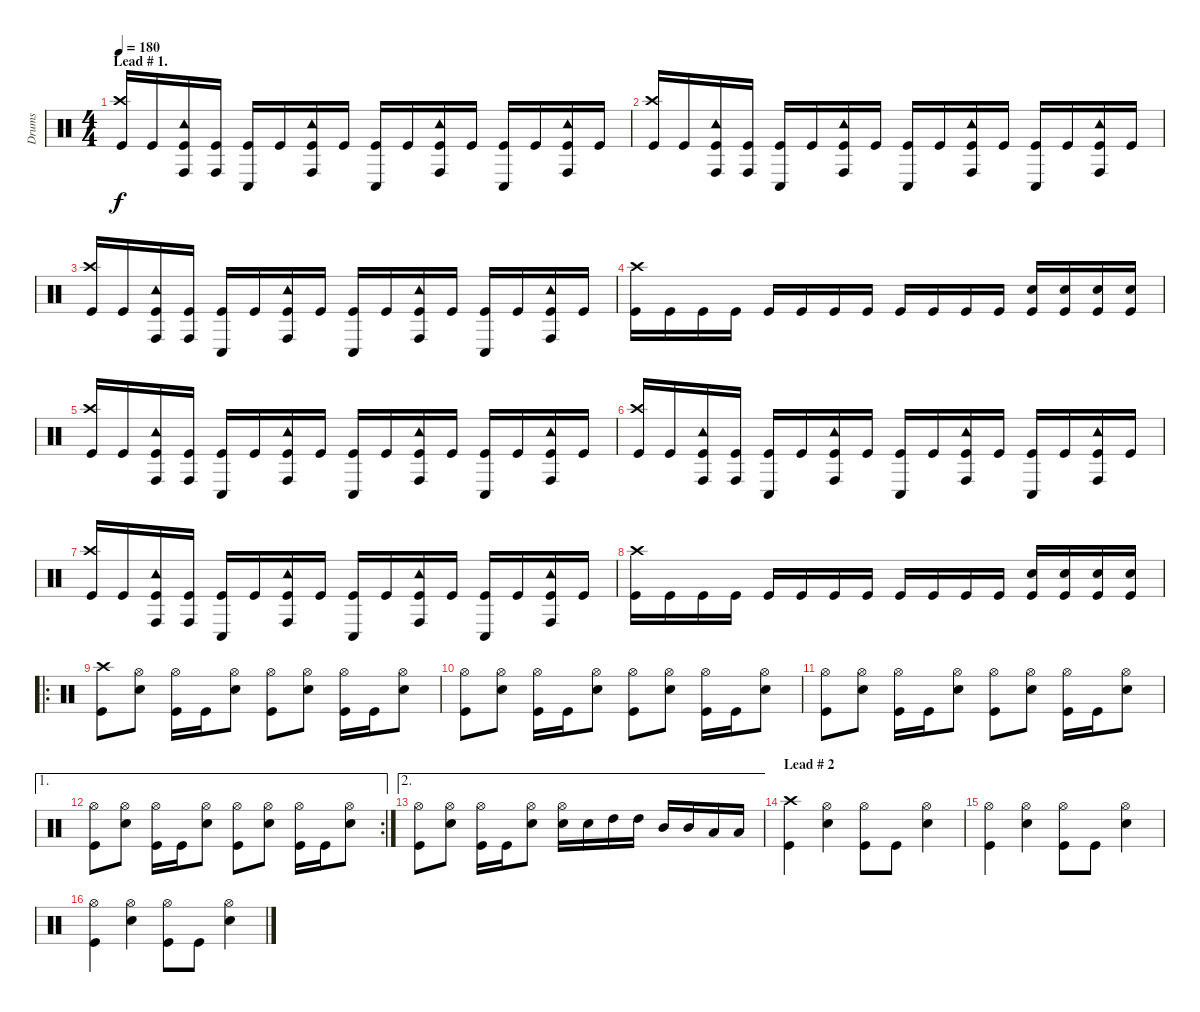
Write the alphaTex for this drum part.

\track ("Drums" "Drums") {instrument percussion}
\staff {score}
\articulation defaults
\ts (4 4)
\section ("" "Lead # 1.")
\tempo 180
\clef neutral
\ks c
("Crash high (hit)" "Kick (hit)").16{dy f} "Kick (hit)".16 ("Conga high (hit)" "Tambourine (hit)" "Kick (hit)").16 ("Conga high (hit)" "Kick (hit)").16 ("Conga low (hit)" "Kick (hit)").16 "Kick (hit)".16 ("Conga high (hit)" "Tambourine (hit)" "Kick (hit)").16 "Kick (hit)".16 ("Conga low (hit)" "Kick (hit)").16 "Kick (hit)".16 ("Conga high (hit)" "Tambourine (hit)" "Kick (hit)").16 "Kick (hit)".16 ("Conga low (hit)" "Kick (hit)").16 "Kick (hit)".16 ("Conga high (hit)" "Tambourine (hit)" "Kick (hit)").16 "Kick (hit)".16 |
("Crash high (hit)" "Kick (hit)").16 "Kick (hit)".16 ("Conga high (hit)" "Tambourine (hit)" "Kick (hit)").16 ("Conga high (hit)" "Kick (hit)").16 ("Conga low (hit)" "Kick (hit)").16 "Kick (hit)".16 ("Conga high (hit)" "Tambourine (hit)" "Kick (hit)").16 "Kick (hit)".16 ("Conga low (hit)" "Kick (hit)").16 "Kick (hit)".16 ("Conga high (hit)" "Tambourine (hit)" "Kick (hit)").16 "Kick (hit)".16 ("Conga low (hit)" "Kick (hit)").16 "Kick (hit)".16 ("Conga high (hit)" "Tambourine (hit)" "Kick (hit)").16 "Kick (hit)".16 |
("Crash high (hit)" "Kick (hit)").16 "Kick (hit)".16 ("Conga high (hit)" "Tambourine (hit)" "Kick (hit)").16 ("Conga high (hit)" "Kick (hit)").16 ("Conga low (hit)" "Kick (hit)").16 "Kick (hit)".16 ("Conga high (hit)" "Tambourine (hit)" "Kick (hit)").16 "Kick (hit)".16 ("Conga low (hit)" "Kick (hit)").16 "Kick (hit)".16 ("Conga high (hit)" "Tambourine (hit)" "Kick (hit)").16 "Kick (hit)".16 ("Conga low (hit)" "Kick (hit)").16 "Kick (hit)".16 ("Conga high (hit)" "Tambourine (hit)" "Kick (hit)").16 "Kick (hit)".16 |
("Crash high (hit)" "Kick (hit)").16 "Kick (hit)".16 "Kick (hit)".16 "Kick (hit)".16 "Kick (hit)".16 "Kick (hit)".16 "Kick (hit)".16 "Kick (hit)".16 "Kick (hit)".16 "Kick (hit)".16 "Kick (hit)".16 "Kick (hit)".16 ("Snare (hit) 2" "Kick (hit)").16 ("Snare (hit) 2" "Kick (hit)").16 ("Snare (hit) 2" "Kick (hit)").16 ("Snare (hit) 2" "Kick (hit)").16 |
("Crash high (hit)" "Kick (hit)").16 "Kick (hit)".16 ("Conga high (hit)" "Tambourine (hit)" "Kick (hit)").16 ("Conga high (hit)" "Kick (hit)").16 ("Conga low (hit)" "Kick (hit)").16 "Kick (hit)".16 ("Conga high (hit)" "Tambourine (hit)" "Kick (hit)").16 "Kick (hit)".16 ("Conga low (hit)" "Kick (hit)").16 "Kick (hit)".16 ("Conga high (hit)" "Tambourine (hit)" "Kick (hit)").16 "Kick (hit)".16 ("Conga low (hit)" "Kick (hit)").16 "Kick (hit)".16 ("Conga high (hit)" "Tambourine (hit)" "Kick (hit)").16 "Kick (hit)".16 |
("Crash high (hit)" "Kick (hit)").16 "Kick (hit)".16 ("Conga high (hit)" "Tambourine (hit)" "Kick (hit)").16 ("Conga high (hit)" "Kick (hit)").16 ("Conga low (hit)" "Kick (hit)").16 "Kick (hit)".16 ("Conga high (hit)" "Tambourine (hit)" "Kick (hit)").16 "Kick (hit)".16 ("Conga low (hit)" "Kick (hit)").16 "Kick (hit)".16 ("Conga high (hit)" "Tambourine (hit)" "Kick (hit)").16 "Kick (hit)".16 ("Conga low (hit)" "Kick (hit)").16 "Kick (hit)".16 ("Conga high (hit)" "Tambourine (hit)" "Kick (hit)").16 "Kick (hit)".16 |
("Crash high (hit)" "Kick (hit)").16 "Kick (hit)".16 ("Conga high (hit)" "Tambourine (hit)" "Kick (hit)").16 ("Conga high (hit)" "Kick (hit)").16 ("Conga low (hit)" "Kick (hit)").16 "Kick (hit)".16 ("Conga high (hit)" "Tambourine (hit)" "Kick (hit)").16 "Kick (hit)".16 ("Conga low (hit)" "Kick (hit)").16 "Kick (hit)".16 ("Conga high (hit)" "Tambourine (hit)" "Kick (hit)").16 "Kick (hit)".16 ("Conga low (hit)" "Kick (hit)").16 "Kick (hit)".16 ("Conga high (hit)" "Tambourine (hit)" "Kick (hit)").16 "Kick (hit)".16 |
("Crash high (hit)" "Kick (hit)").16 "Kick (hit)".16 "Kick (hit)".16 "Kick (hit)".16 "Kick (hit)".16 "Kick (hit)".16 "Kick (hit)".16 "Kick (hit)".16 "Kick (hit)".16 "Kick (hit)".16 "Kick (hit)".16 "Kick (hit)".16 ("Snare (hit) 2" "Kick (hit)").16 ("Snare (hit) 2" "Kick (hit)").16 ("Snare (hit) 2" "Kick (hit)").16 ("Snare (hit) 2" "Kick (hit)").16 |
\ro
("Crash high (hit)" "Kick (hit)").8 ("Hi-Hat (open)" "Snare (hit) 2").8 ("Hi-Hat (open)" "Kick (hit)").16 "Kick (hit)".16 ("Hi-Hat (open)" "Snare (hit) 2").8 ("Hi-Hat (open)" "Kick (hit)").8 ("Hi-Hat (open)" "Snare (hit) 2").8 ("Hi-Hat (open)" "Kick (hit)").16 "Kick (hit)".16 ("Hi-Hat (open)" "Snare (hit) 2").8 |
("Hi-Hat (open)" "Kick (hit)").8 ("Hi-Hat (open)" "Snare (hit) 2").8 ("Hi-Hat (open)" "Kick (hit)").16 "Kick (hit)".16 ("Hi-Hat (open)" "Snare (hit) 2").8 ("Hi-Hat (open)" "Kick (hit)").8 ("Hi-Hat (open)" "Snare (hit) 2").8 ("Hi-Hat (open)" "Kick (hit)").16 "Kick (hit)".16 ("Hi-Hat (open)" "Snare (hit) 2").8 |
("Hi-Hat (open)" "Kick (hit)").8 ("Hi-Hat (open)" "Snare (hit) 2").8 ("Hi-Hat (open)" "Kick (hit)").16 "Kick (hit)".16 ("Hi-Hat (open)" "Snare (hit) 2").8 ("Hi-Hat (open)" "Kick (hit)").8 ("Hi-Hat (open)" "Snare (hit) 2").8 ("Hi-Hat (open)" "Kick (hit)").16 "Kick (hit)".16 ("Hi-Hat (open)" "Snare (hit) 2").8 |
\ae 1
\rc 2
("Hi-Hat (open)" "Kick (hit)").8 ("Hi-Hat (open)" "Snare (hit) 2").8 ("Hi-Hat (open)" "Kick (hit)").16 "Kick (hit)".16 ("Hi-Hat (open)" "Snare (hit) 2").8 ("Hi-Hat (open)" "Kick (hit)").8 ("Hi-Hat (open)" "Snare (hit) 2").8 ("Hi-Hat (open)" "Kick (hit)").16 "Kick (hit)".16 ("Hi-Hat (open)" "Snare (hit) 2").8 |
\ae 2
("Hi-Hat (open)" "Kick (hit)").8 ("Hi-Hat (open)" "Snare (hit) 2").8 ("Hi-Hat (open)" "Kick (hit)").16 "Kick (hit)".16 ("Hi-Hat (open)" "Snare (hit) 2").8 ("Hi-Hat (open)" "Snare (hit) 2").16 "Snare (hit) 2".16 "High Tom (hit)".16 "High Tom (hit)".16 "Mid Tom (hit)".16 "Mid Tom (hit)".16 "Low Tom (hit)".16 "Low Tom (hit)".16 |
\section ("" "Lead # 2")
("Crash high (hit)" "Kick (hit)").4 ("Hi-Hat (open)" "Snare (hit) 2").4 ("Hi-Hat (open)" "Kick (hit)").8 "Kick (hit)".8 ("Hi-Hat (open)" "Snare (hit) 2").4 |
("Hi-Hat (open)" "Kick (hit)").4 ("Hi-Hat (open)" "Snare (hit) 2").4 ("Hi-Hat (open)" "Kick (hit)").8 "Kick (hit)".8 ("Hi-Hat (open)" "Snare (hit) 2").4 |
("Hi-Hat (open)" "Kick (hit)").4 ("Hi-Hat (open)" "Snare (hit) 2").4 ("Hi-Hat (open)" "Kick (hit)").8 "Kick (hit)".8 ("Hi-Hat (open)" "Snare (hit) 2").4
